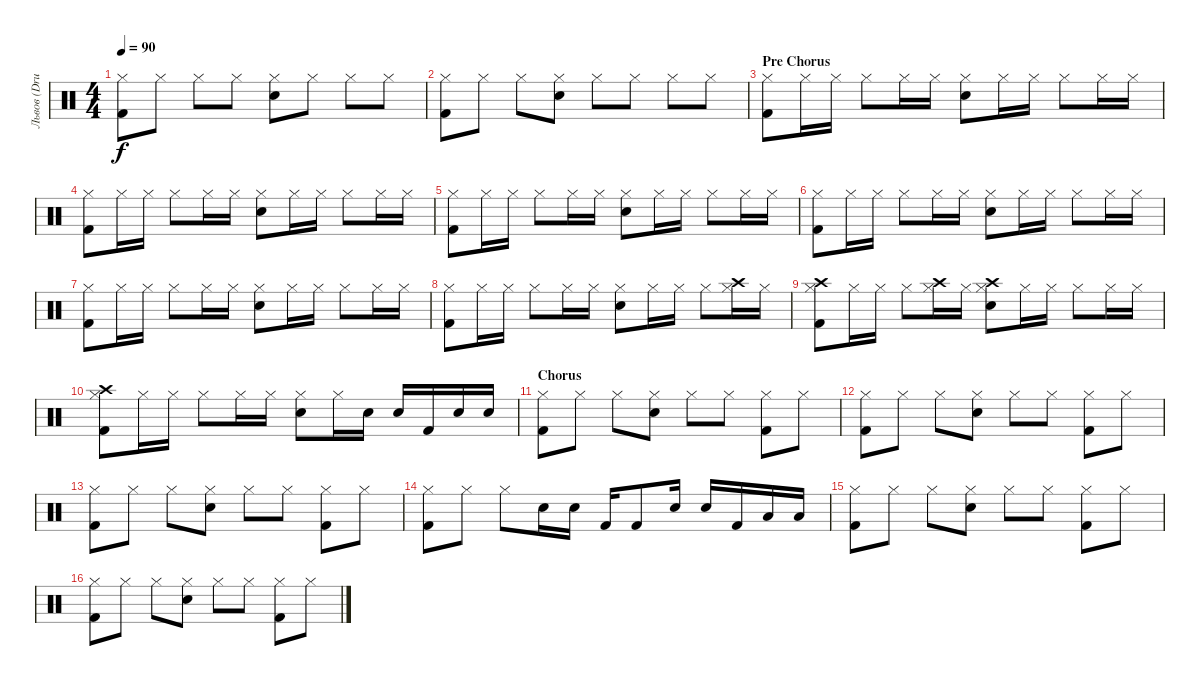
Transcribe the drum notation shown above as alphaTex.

\track ("Львов (Drums)" "Львов (Dru") {instrument percussion}
\staff {score}
\articulation defaults
\ts (4 4)
\tempo 90
\clef neutral
\ks c
("Kick (hit) 2" "Hi-Hat (closed)").8{dy f} "Hi-Hat (closed)".8 "Hi-Hat (closed)".8 "Hi-Hat (closed)".8 ("Electric Snare (hit)" "Hi-Hat (closed)").8 "Hi-Hat (closed)".8 "Hi-Hat (closed)".8 "Hi-Hat (closed)".8 |
("Kick (hit) 2" "Hi-Hat (closed)").8 "Hi-Hat (closed)".8 "Hi-Hat (closed)".8 ("Electric Snare (hit)" "Hi-Hat (closed)").8 "Hi-Hat (closed)".8 "Hi-Hat (closed)".8 "Hi-Hat (closed)".8 "Hi-Hat (closed)".8 |
\section ("" "Pre Chorus")
("Kick (hit) 2" "Hi-Hat (closed)").8 "Hi-Hat (closed)".16 "Hi-Hat (closed)".16 "Hi-Hat (closed)".8 "Hi-Hat (closed)".16 "Hi-Hat (closed)".16 ("Electric Snare (hit)" "Hi-Hat (closed)").8 "Hi-Hat (closed)".16 "Hi-Hat (closed)".16 "Hi-Hat (closed)".8 "Hi-Hat (closed)".16 "Hi-Hat (closed)".16 |
("Kick (hit) 2" "Hi-Hat (closed)").8 "Hi-Hat (closed)".16 "Hi-Hat (closed)".16 "Hi-Hat (closed)".8 "Hi-Hat (closed)".16 "Hi-Hat (closed)".16 ("Electric Snare (hit)" "Hi-Hat (closed)").8 "Hi-Hat (closed)".16 "Hi-Hat (closed)".16 "Hi-Hat (closed)".8 "Hi-Hat (closed)".16 "Hi-Hat (closed)".16 |
("Kick (hit) 2" "Hi-Hat (closed)").8 "Hi-Hat (closed)".16 "Hi-Hat (closed)".16 "Hi-Hat (closed)".8 "Hi-Hat (closed)".16 "Hi-Hat (closed)".16 ("Electric Snare (hit)" "Hi-Hat (closed)").8 "Hi-Hat (closed)".16 "Hi-Hat (closed)".16 "Hi-Hat (closed)".8 "Hi-Hat (closed)".16 "Hi-Hat (closed)".16 |
("Kick (hit) 2" "Hi-Hat (closed)").8 "Hi-Hat (closed)".16 "Hi-Hat (closed)".16 "Hi-Hat (closed)".8 "Hi-Hat (closed)".16 "Hi-Hat (closed)".16 ("Electric Snare (hit)" "Hi-Hat (closed)").8 "Hi-Hat (closed)".16 "Hi-Hat (closed)".16 "Hi-Hat (closed)".8 "Hi-Hat (closed)".16 "Hi-Hat (closed)".16 |
("Kick (hit) 2" "Hi-Hat (closed)").8 "Hi-Hat (closed)".16 "Hi-Hat (closed)".16 "Hi-Hat (closed)".8 "Hi-Hat (closed)".16 "Hi-Hat (closed)".16 ("Electric Snare (hit)" "Hi-Hat (closed)").8 "Hi-Hat (closed)".16 "Hi-Hat (closed)".16 "Hi-Hat (closed)".8 "Hi-Hat (closed)".16 "Hi-Hat (closed)".16 |
("Kick (hit) 2" "Hi-Hat (closed)").8 "Hi-Hat (closed)".16 "Hi-Hat (closed)".16 "Hi-Hat (closed)".8 "Hi-Hat (closed)".16 "Hi-Hat (closed)".16 ("Electric Snare (hit)" "Hi-Hat (closed)").8 "Hi-Hat (closed)".16 "Hi-Hat (closed)".16 "Hi-Hat (closed)".8 ("Crash high (hit)" "Hi-Hat (closed)").16 "Hi-Hat (closed)".16 |
("Kick (hit) 2" "Crash high (hit)" "Hi-Hat (closed)").8 "Hi-Hat (closed)".16 "Hi-Hat (closed)".16 "Hi-Hat (closed)".8 ("Crash high (hit)" "Hi-Hat (closed)").16 "Hi-Hat (closed)".16 ("Electric Snare (hit)" "Crash high (hit)" "Hi-Hat (closed)").8 "Hi-Hat (closed)".16 "Hi-Hat (closed)".16 "Hi-Hat (closed)".8 "Hi-Hat (closed)".16 "Hi-Hat (closed)".16 |
("Kick (hit) 2" "Crash high (hit)" "Hi-Hat (closed)").8 "Hi-Hat (closed)".16 "Hi-Hat (closed)".16 "Hi-Hat (closed)".8 "Hi-Hat (closed)".16 "Hi-Hat (closed)".16 ("Electric Snare (hit)" "Hi-Hat (closed)").8 "Hi-Hat (closed)".16 "Electric Snare (hit)".16 "Electric Snare (hit)".16 "Kick (hit) 2".16 "Electric Snare (hit)".16 "Electric Snare (hit)".16 |
\section ("" "Chorus")
("Kick (hit) 2" "Hi-Hat (closed)").8 "Hi-Hat (closed)".8 "Hi-Hat (closed)".8 ("Electric Snare (hit)" "Hi-Hat (closed)").8 "Hi-Hat (closed)".8 "Hi-Hat (closed)".8 ("Kick (hit) 2" "Hi-Hat (closed)").8 "Hi-Hat (closed)".8 |
("Kick (hit) 2" "Hi-Hat (closed)").8 "Hi-Hat (closed)".8 "Hi-Hat (closed)".8 ("Electric Snare (hit)" "Hi-Hat (closed)").8 "Hi-Hat (closed)".8 "Hi-Hat (closed)".8 ("Kick (hit) 2" "Hi-Hat (closed)").8 "Hi-Hat (closed)".8 |
("Kick (hit) 2" "Hi-Hat (closed)").8 "Hi-Hat (closed)".8 "Hi-Hat (closed)".8 ("Electric Snare (hit)" "Hi-Hat (closed)").8 "Hi-Hat (closed)".8 "Hi-Hat (closed)".8 ("Kick (hit) 2" "Hi-Hat (closed)").8 "Hi-Hat (closed)".8 |
("Kick (hit) 2" "Hi-Hat (closed)").8 "Hi-Hat (closed)".8 "Hi-Hat (closed)".8 "Electric Snare (hit)".16 "Electric Snare (hit)".16 "Kick (hit) 2".16 "Kick (hit) 2".8 "Electric Snare (hit)".16 "Electric Snare (hit)".16 "Kick (hit) 2".16 "Low Tom (hit)".16 "Low Tom (hit)".16 |
("Kick (hit) 2" "Hi-Hat (closed)").8 "Hi-Hat (closed)".8 "Hi-Hat (closed)".8 ("Electric Snare (hit)" "Hi-Hat (closed)").8 "Hi-Hat (closed)".8 "Hi-Hat (closed)".8 ("Kick (hit) 2" "Hi-Hat (closed)").8 "Hi-Hat (closed)".8 |
("Kick (hit) 2" "Hi-Hat (closed)").8 "Hi-Hat (closed)".8 "Hi-Hat (closed)".8 ("Electric Snare (hit)" "Hi-Hat (closed)").8 "Hi-Hat (closed)".8 "Hi-Hat (closed)".8 ("Kick (hit) 2" "Hi-Hat (closed)").8 "Hi-Hat (closed)".8
